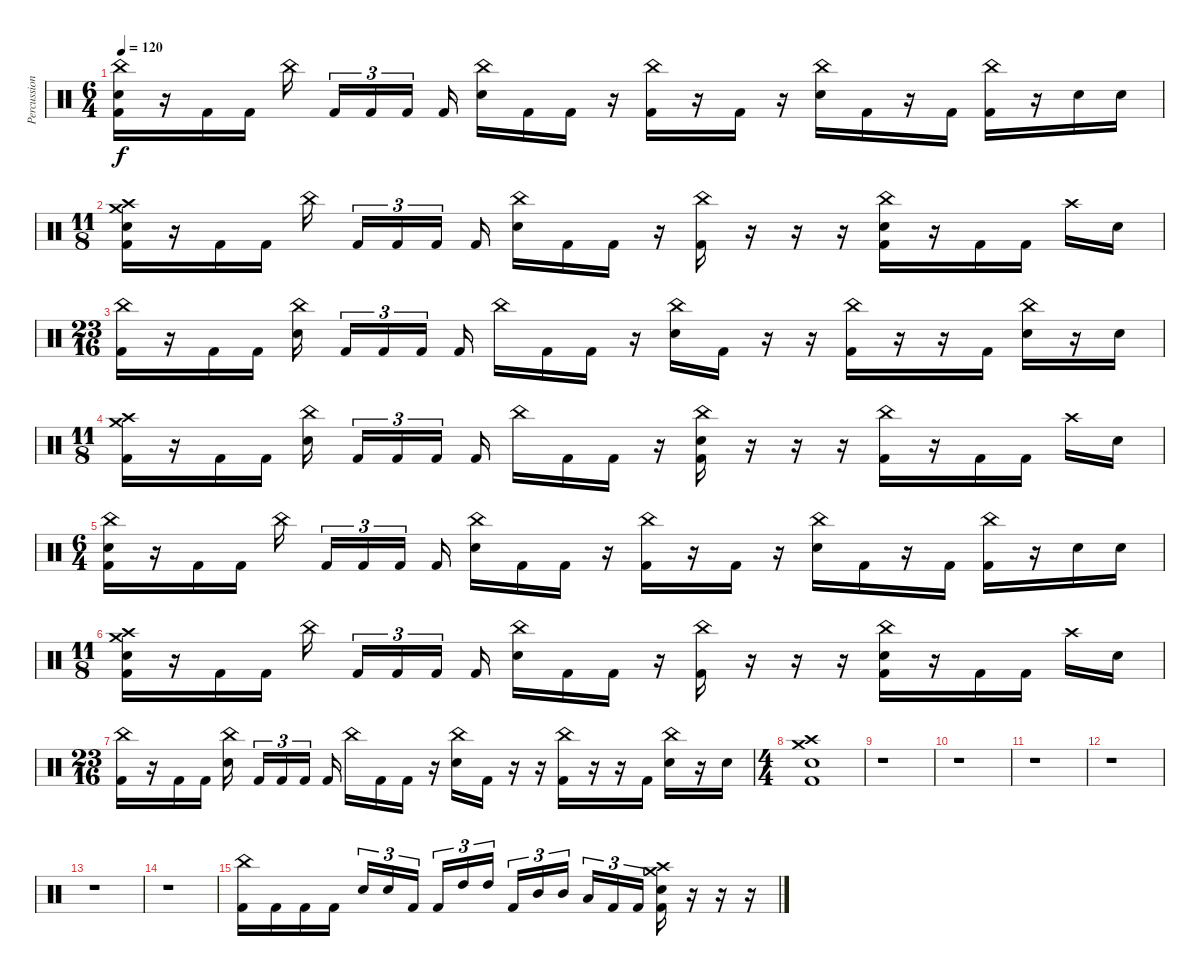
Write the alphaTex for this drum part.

\track ("Percussion" "Percussion") {instrument percussion}
\staff {score}
\articulation defaults
\ts (6 4)
\tempo 120
\clef neutral
\ks c
("China (hit)" "Electric Snare (hit)" "Kick (hit) 2").16{dy f} r.16 "Kick (hit) 2".16 "Kick (hit) 2".16 "China (hit)".16{beam splitsecondary} "Kick (hit) 2".16{tu (3 2)} "Kick (hit) 2".16{tu (3 2)} "Kick (hit) 2".16{tu (3 2) beam splitsecondary} "Kick (hit) 2".16 ("China (hit)" "Electric Snare (hit)").16 "Kick (hit) 2".16 "Kick (hit) 2".16 r.16 ("China (hit)" "Kick (hit) 2").16 r.16 "Kick (hit) 2".16 r.16 ("China (hit)" "Electric Snare (hit)").16 "Kick (hit) 2".16 r.16 "Kick (hit) 2".16 ("China (hit)" "Kick (hit) 2").16 r.16 "Electric Snare (hit)".16 "Electric Snare (hit)".16 |
\ts (11 8)
("Crash high (hit)" "Crash medium (hit)" "Electric Snare (hit)" "Kick (hit) 2").16 r.16 "Kick (hit) 2".16 "Kick (hit) 2".16 "China (hit)".16{beam splitsecondary} "Kick (hit) 2".16{tu (3 2)} "Kick (hit) 2".16{tu (3 2)} "Kick (hit) 2".16{tu (3 2)} "Kick (hit) 2".16 ("China (hit)" "Electric Snare (hit)").16 "Kick (hit) 2".16 "Kick (hit) 2".16 r.16 ("China (hit)" "Kick (hit) 2").16 r.16 r.16 r.16 ("China (hit)" "Electric Snare (hit)" "Kick (hit) 2").16 r.16 "Kick (hit) 2".16 "Kick (hit) 2".16 "Crash high (hit)".16 "Electric Snare (hit)".16 |
\ts (23 16)
("China (hit)" "Kick (hit) 2").16 r.16 "Kick (hit) 2".16 "Kick (hit) 2".16 ("China (hit)" "Electric Snare (hit)").16 "Kick (hit) 2".16{tu (3 2)} "Kick (hit) 2".16{tu (3 2)} "Kick (hit) 2".16{tu (3 2)} "Kick (hit) 2".16 "China (hit)".16 "Kick (hit) 2".16 "Kick (hit) 2".16 r.16 ("China (hit)" "Electric Snare (hit)").16 "Kick (hit) 2".16 r.16 r.16 ("China (hit)" "Kick (hit) 2").16 r.16 r.16 "Kick (hit) 2".16 ("China (hit)" "Electric Snare (hit)").16 r.16 "Electric Snare (hit)".16 |
\ts (11 8)
("Crash high (hit)" "Crash medium (hit)" "Kick (hit) 2").16 r.16 "Kick (hit) 2".16 "Kick (hit) 2".16 ("China (hit)" "Electric Snare (hit)").16{beam splitsecondary} "Kick (hit) 2".16{tu (3 2)} "Kick (hit) 2".16{tu (3 2)} "Kick (hit) 2".16{tu (3 2)} "Kick (hit) 2".16 "China (hit)".16 "Kick (hit) 2".16 "Kick (hit) 2".16 r.16 ("China (hit)" "Electric Snare (hit)" "Kick (hit) 2").16 r.16 r.16 r.16 ("China (hit)" "Kick (hit) 2").16 r.16 "Kick (hit) 2".16 "Kick (hit) 2".16 "Crash high (hit)".16 "Electric Snare (hit)".16 |
\ts (6 4)
("China (hit)" "Electric Snare (hit)" "Kick (hit) 2").16 r.16 "Kick (hit) 2".16 "Kick (hit) 2".16 "China (hit)".16{beam splitsecondary} "Kick (hit) 2".16{tu (3 2)} "Kick (hit) 2".16{tu (3 2)} "Kick (hit) 2".16{tu (3 2) beam splitsecondary} "Kick (hit) 2".16 ("China (hit)" "Electric Snare (hit)").16 "Kick (hit) 2".16 "Kick (hit) 2".16 r.16 ("China (hit)" "Kick (hit) 2").16 r.16 "Kick (hit) 2".16 r.16 ("China (hit)" "Electric Snare (hit)").16 "Kick (hit) 2".16 r.16 "Kick (hit) 2".16 ("China (hit)" "Kick (hit) 2").16 r.16 "Electric Snare (hit)".16 "Electric Snare (hit)".16 |
\ts (11 8)
("Crash high (hit)" "Crash medium (hit)" "Electric Snare (hit)" "Kick (hit) 2").16 r.16 "Kick (hit) 2".16 "Kick (hit) 2".16 "China (hit)".16{beam splitsecondary} "Kick (hit) 2".16{tu (3 2)} "Kick (hit) 2".16{tu (3 2)} "Kick (hit) 2".16{tu (3 2)} "Kick (hit) 2".16 ("China (hit)" "Electric Snare (hit)").16 "Kick (hit) 2".16 "Kick (hit) 2".16 r.16 ("China (hit)" "Kick (hit) 2").16 r.16 r.16 r.16 ("China (hit)" "Electric Snare (hit)" "Kick (hit) 2").16 r.16 "Kick (hit) 2".16 "Kick (hit) 2".16 "Crash high (hit)".16 "Electric Snare (hit)".16 |
\ts (23 16)
("China (hit)" "Kick (hit) 2").16 r.16 "Kick (hit) 2".16 "Kick (hit) 2".16 ("China (hit)" "Electric Snare (hit)").16 "Kick (hit) 2".16{tu (3 2)} "Kick (hit) 2".16{tu (3 2)} "Kick (hit) 2".16{tu (3 2)} "Kick (hit) 2".16 "China (hit)".16 "Kick (hit) 2".16 "Kick (hit) 2".16 r.16 ("China (hit)" "Electric Snare (hit)").16 "Kick (hit) 2".16 r.16 r.16 ("China (hit)" "Kick (hit) 2").16 r.16 r.16 "Kick (hit) 2".16 ("China (hit)" "Electric Snare (hit)").16 r.16 "Electric Snare (hit)".16 |
\ts (4 4)
("Crash high (hit)" "Crash medium (hit)" "Electric Snare (hit)" "Kick (hit) 2").1 |
r.1 |
r.1 |
r.1 |
r.1 |
r.1 |
r.1 |
("China (hit)" "Kick (hit) 2").16 "Kick (hit) 2".16 "Kick (hit) 2".16 "Kick (hit) 2".16 "Electric Snare (hit)".16{tu (3 2)} "Electric Snare (hit)".16{tu (3 2)} "Kick (hit) 2".16{tu (3 2) beam splitsecondary} "Kick (hit) 2".16{tu (3 2)} "High Tom (hit)".16{tu (3 2)} "High Tom (hit)".16{tu (3 2)} "Kick (hit) 2".16{tu (3 2)} "Mid Tom (hit)".16{tu (3 2)} "Mid Tom (hit)".16{tu (3 2) beam splitsecondary} "Low Tom (hit)".16{tu (3 2)} "Kick (hit) 2".16{tu (3 2)} "Kick (hit) 2".16{tu (3 2)} ("Crash high (hit)" "Crash medium (hit)" "Electric Snare (hit)" "Kick (hit) 2").16 r.16 r.16 r.16
